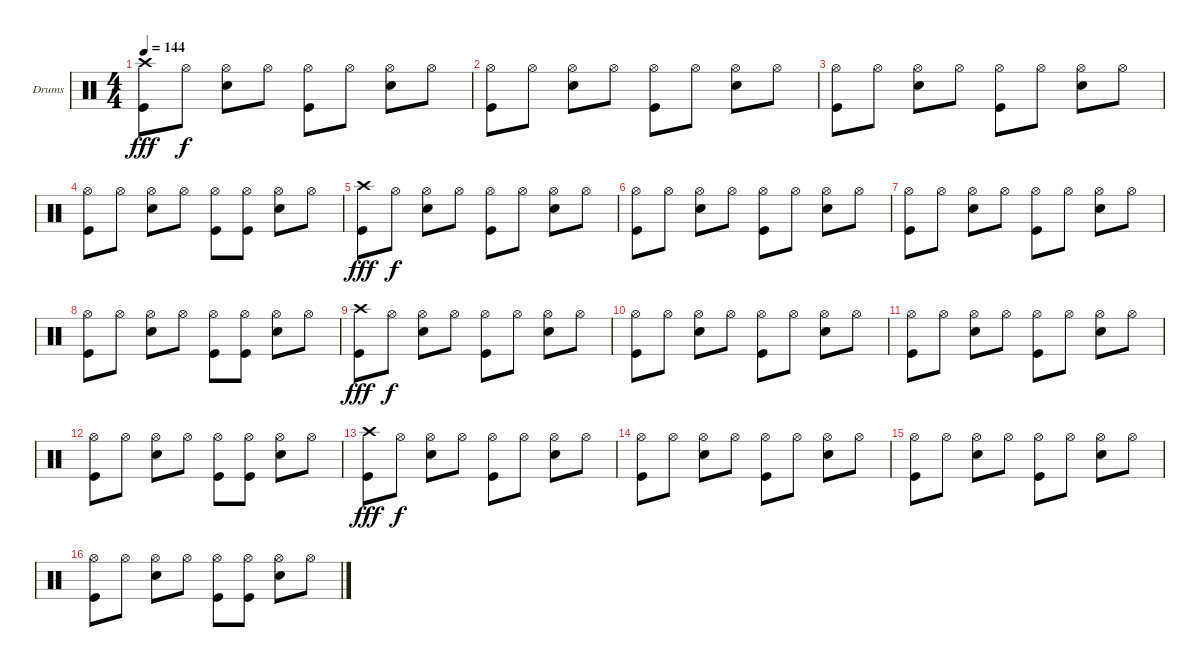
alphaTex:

\bracketExtendMode groupsimilarinstruments
\firstSystemTrackNameOrientation horizontal
\otherSystemsTrackNameOrientation horizontal
\track ("Drums" "Drums") {instrument percussion}
\staff {score}
\articulation defaults
\ts (4 4)
\tempo 144
\clef neutral
\ks c
("Crash high (hit)" "Kick (hit)").8{dy fff} "Hi-Hat (open)".8{dy f} ("Hi-Hat (open)" "Snare (hit) 2").8 "Hi-Hat (open)".8 ("Hi-Hat (open)" "Kick (hit)").8 "Hi-Hat (open)".8 ("Hi-Hat (open)" "Snare (hit) 2").8 "Hi-Hat (open)".8 |
("Hi-Hat (open)" "Kick (hit)").8 "Hi-Hat (open)".8 ("Hi-Hat (open)" "Snare (hit) 2").8 "Hi-Hat (open)".8 ("Hi-Hat (open)" "Kick (hit)").8 "Hi-Hat (open)".8 ("Hi-Hat (open)" "Snare (hit) 2").8 "Hi-Hat (open)".8 |
("Hi-Hat (open)" "Kick (hit)").8 "Hi-Hat (open)".8 ("Hi-Hat (open)" "Snare (hit) 2").8 "Hi-Hat (open)".8 ("Hi-Hat (open)" "Kick (hit)").8 "Hi-Hat (open)".8 ("Hi-Hat (open)" "Snare (hit) 2").8 "Hi-Hat (open)".8 |
("Hi-Hat (open)" "Kick (hit)").8 "Hi-Hat (open)".8 ("Hi-Hat (open)" "Snare (hit) 2").8 "Hi-Hat (open)".8 ("Hi-Hat (open)" "Kick (hit)").8 ("Hi-Hat (open)" "Kick (hit)").8 ("Hi-Hat (open)" "Snare (hit) 2").8 "Hi-Hat (open)".8 |
("Crash high (hit)" "Kick (hit)").8{dy fff} "Hi-Hat (open)".8{dy f} ("Hi-Hat (open)" "Snare (hit) 2").8 "Hi-Hat (open)".8 ("Hi-Hat (open)" "Kick (hit)").8 "Hi-Hat (open)".8 ("Hi-Hat (open)" "Snare (hit) 2").8 "Hi-Hat (open)".8 |
("Hi-Hat (open)" "Kick (hit)").8 "Hi-Hat (open)".8 ("Hi-Hat (open)" "Snare (hit) 2").8 "Hi-Hat (open)".8 ("Hi-Hat (open)" "Kick (hit)").8 "Hi-Hat (open)".8 ("Hi-Hat (open)" "Snare (hit) 2").8 "Hi-Hat (open)".8 |
("Hi-Hat (open)" "Kick (hit)").8 "Hi-Hat (open)".8 ("Hi-Hat (open)" "Snare (hit) 2").8 "Hi-Hat (open)".8 ("Hi-Hat (open)" "Kick (hit)").8 "Hi-Hat (open)".8 ("Hi-Hat (open)" "Snare (hit) 2").8 "Hi-Hat (open)".8 |
("Hi-Hat (open)" "Kick (hit)").8 "Hi-Hat (open)".8 ("Hi-Hat (open)" "Snare (hit) 2").8 "Hi-Hat (open)".8 ("Hi-Hat (open)" "Kick (hit)").8 ("Hi-Hat (open)" "Kick (hit)").8 ("Hi-Hat (open)" "Snare (hit) 2").8 "Hi-Hat (open)".8 |
("Crash high (hit)" "Kick (hit)").8{dy fff} "Hi-Hat (open)".8{dy f} ("Hi-Hat (open)" "Snare (hit) 2").8 "Hi-Hat (open)".8 ("Hi-Hat (open)" "Kick (hit)").8 "Hi-Hat (open)".8 ("Hi-Hat (open)" "Snare (hit) 2").8 "Hi-Hat (open)".8 |
("Hi-Hat (open)" "Kick (hit)").8 "Hi-Hat (open)".8 ("Hi-Hat (open)" "Snare (hit) 2").8 "Hi-Hat (open)".8 ("Hi-Hat (open)" "Kick (hit)").8 "Hi-Hat (open)".8 ("Hi-Hat (open)" "Snare (hit) 2").8 "Hi-Hat (open)".8 |
("Hi-Hat (open)" "Kick (hit)").8 "Hi-Hat (open)".8 ("Hi-Hat (open)" "Snare (hit) 2").8 "Hi-Hat (open)".8 ("Hi-Hat (open)" "Kick (hit)").8 "Hi-Hat (open)".8 ("Hi-Hat (open)" "Snare (hit) 2").8 "Hi-Hat (open)".8 |
("Hi-Hat (open)" "Kick (hit)").8 "Hi-Hat (open)".8 ("Hi-Hat (open)" "Snare (hit) 2").8 "Hi-Hat (open)".8 ("Hi-Hat (open)" "Kick (hit)").8 ("Hi-Hat (open)" "Kick (hit)").8 ("Hi-Hat (open)" "Snare (hit) 2").8 "Hi-Hat (open)".8 |
("Crash high (hit)" "Kick (hit)").8{dy fff} "Hi-Hat (open)".8{dy f} ("Hi-Hat (open)" "Snare (hit) 2").8 "Hi-Hat (open)".8 ("Hi-Hat (open)" "Kick (hit)").8 "Hi-Hat (open)".8 ("Hi-Hat (open)" "Snare (hit) 2").8 "Hi-Hat (open)".8 |
("Hi-Hat (open)" "Kick (hit)").8 "Hi-Hat (open)".8 ("Hi-Hat (open)" "Snare (hit) 2").8 "Hi-Hat (open)".8 ("Hi-Hat (open)" "Kick (hit)").8 "Hi-Hat (open)".8 ("Hi-Hat (open)" "Snare (hit) 2").8 "Hi-Hat (open)".8 |
("Hi-Hat (open)" "Kick (hit)").8 "Hi-Hat (open)".8 ("Hi-Hat (open)" "Snare (hit) 2").8 "Hi-Hat (open)".8 ("Hi-Hat (open)" "Kick (hit)").8 "Hi-Hat (open)".8 ("Hi-Hat (open)" "Snare (hit) 2").8 "Hi-Hat (open)".8 |
("Hi-Hat (open)" "Kick (hit)").8 "Hi-Hat (open)".8 ("Hi-Hat (open)" "Snare (hit) 2").8 "Hi-Hat (open)".8 ("Hi-Hat (open)" "Kick (hit)").8 ("Hi-Hat (open)" "Kick (hit)").8 ("Hi-Hat (open)" "Snare (hit) 2").8 "Hi-Hat (open)".8
